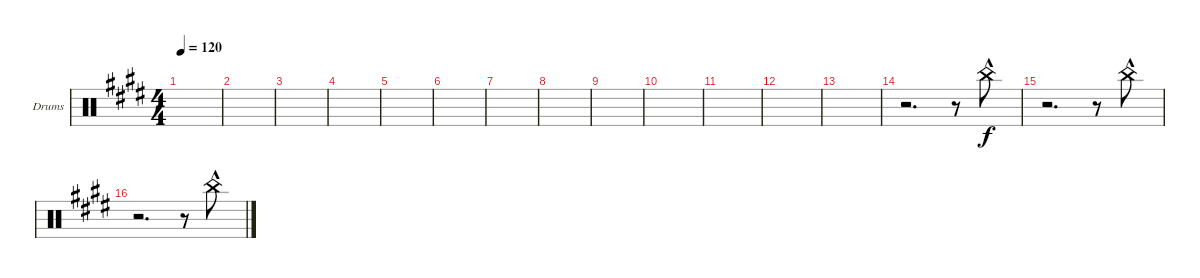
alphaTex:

\defaultSystemsLayout 4
\bracketExtendMode groupsimilarinstruments
\firstSystemTrackNameOrientation horizontal
\otherSystemsTrackNameOrientation horizontal
\track ("Drumkit" "Drums") {instrument percussion}
\staff {score}
\articulation defaults
\ts (4 4)
\tempo 120
\clef neutral
\ks e
|
|
|
|
|
|
|
|
|
|
|
|
|
r.2{d} r.8 "China (hit)"{hac}.8 |
r.2{d} r.8 "China (hit)"{hac}.8 |
r.2{d} r.8 "China (hit)"{hac}.8
